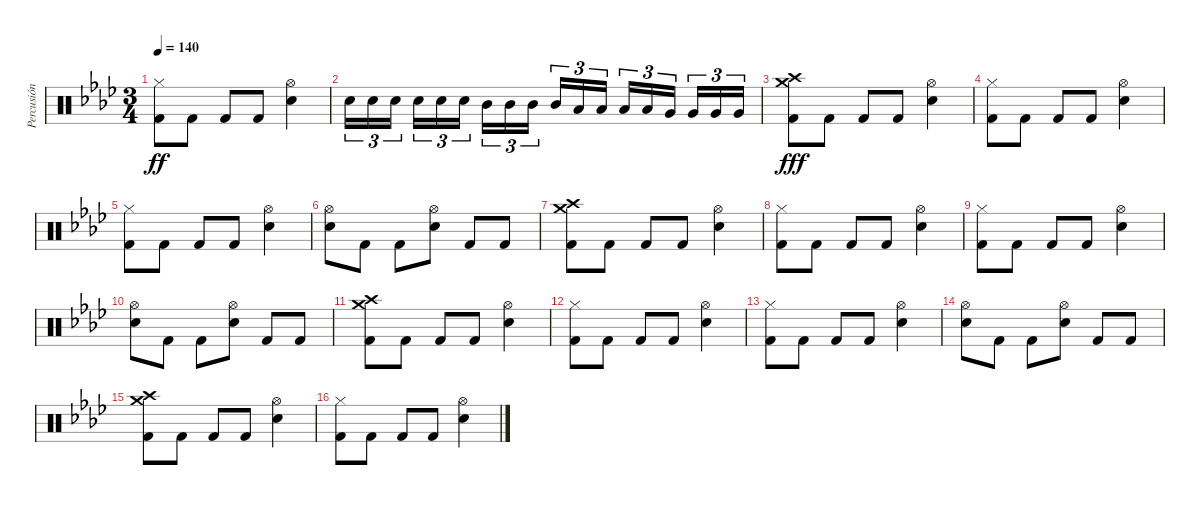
\track ("Percusión" "Percusión") {instrument percussion}
\staff {score}
\articulation defaults
\ts (3 4)
\tempo 140
\clef neutral
\ks fminor
("Hi-Hat (closed)" "Kick (hit) 2").8{dy ff} "Kick (hit) 2".8 "Kick (hit) 2".8 "Kick (hit) 2".8 ("Hi-Hat (open)" "Snare (hit) 2").4 |
"Snare (hit) 2".16{tu (3 2)} "Snare (hit) 2".16{tu (3 2)} "Snare (hit) 2".16{tu (3 2) beam splitsecondary} "Snare (hit) 2".16{tu (3 2)} "Snare (hit) 2".16{tu (3 2)} "Snare (hit) 2".16{tu (3 2)} "Mid Tom (hit)".16{tu (3 2)} "Mid Tom (hit)".16{tu (3 2)} "Mid Tom (hit)".16{tu (3 2) beam splitsecondary} "Mid Tom (hit)".16{tu (3 2)} "Low Tom (hit)".16{tu (3 2)} "Low Tom (hit)".16{tu (3 2)} "Low Tom (hit)".16{tu (3 2)} "Low Tom (hit)".16{tu (3 2)} "Very Low Tom (hit)".16{tu (3 2) beam splitsecondary} "Very Low Tom (hit)".16{tu (3 2)} "Very Low Tom (hit)".16{tu (3 2)} "Very Low Tom (hit)".16{tu (3 2)} |
("Crash high (hit)" "Crash medium (hit)" "Kick (hit) 2").8{dy fff} "Kick (hit) 2".8 "Kick (hit) 2".8 "Kick (hit) 2".8 ("Hi-Hat (open)" "Snare (hit) 2").4 |
("Hi-Hat (closed)" "Kick (hit) 2").8 "Kick (hit) 2".8 "Kick (hit) 2".8 "Kick (hit) 2".8 ("Hi-Hat (open)" "Snare (hit) 2").4 |
("Hi-Hat (closed)" "Kick (hit) 2").8 "Kick (hit) 2".8 "Kick (hit) 2".8 "Kick (hit) 2".8 ("Hi-Hat (open)" "Snare (hit) 2").4 |
("Hi-Hat (open)" "Snare (hit) 2").8 "Kick (hit) 2".8 "Kick (hit) 2".8 ("Hi-Hat (open)" "Snare (hit) 2").8 "Kick (hit) 2".8 "Kick (hit) 2".8 |
("Crash high (hit)" "Crash medium (hit)" "Kick (hit) 2").8 "Kick (hit) 2".8 "Kick (hit) 2".8 "Kick (hit) 2".8 ("Hi-Hat (open)" "Snare (hit) 2").4 |
("Hi-Hat (closed)" "Kick (hit) 2").8 "Kick (hit) 2".8 "Kick (hit) 2".8 "Kick (hit) 2".8 ("Hi-Hat (open)" "Snare (hit) 2").4 |
("Hi-Hat (closed)" "Kick (hit) 2").8 "Kick (hit) 2".8 "Kick (hit) 2".8 "Kick (hit) 2".8 ("Hi-Hat (open)" "Snare (hit) 2").4 |
("Hi-Hat (open)" "Snare (hit) 2").8 "Kick (hit) 2".8 "Kick (hit) 2".8 ("Hi-Hat (open)" "Snare (hit) 2").8 "Kick (hit) 2".8 "Kick (hit) 2".8 |
("Crash high (hit)" "Crash medium (hit)" "Kick (hit) 2").8 "Kick (hit) 2".8 "Kick (hit) 2".8 "Kick (hit) 2".8 ("Hi-Hat (open)" "Snare (hit) 2").4 |
("Hi-Hat (closed)" "Kick (hit) 2").8 "Kick (hit) 2".8 "Kick (hit) 2".8 "Kick (hit) 2".8 ("Hi-Hat (open)" "Snare (hit) 2").4 |
("Hi-Hat (closed)" "Kick (hit) 2").8 "Kick (hit) 2".8 "Kick (hit) 2".8 "Kick (hit) 2".8 ("Hi-Hat (open)" "Snare (hit) 2").4 |
("Hi-Hat (open)" "Snare (hit) 2").8 "Kick (hit) 2".8 "Kick (hit) 2".8 ("Hi-Hat (open)" "Snare (hit) 2").8 "Kick (hit) 2".8 "Kick (hit) 2".8 |
("Crash high (hit)" "Crash medium (hit)" "Kick (hit) 2").8 "Kick (hit) 2".8 "Kick (hit) 2".8 "Kick (hit) 2".8 ("Hi-Hat (open)" "Snare (hit) 2").4 |
("Hi-Hat (closed)" "Kick (hit) 2").8 "Kick (hit) 2".8 "Kick (hit) 2".8 "Kick (hit) 2".8 ("Hi-Hat (open)" "Snare (hit) 2").4
